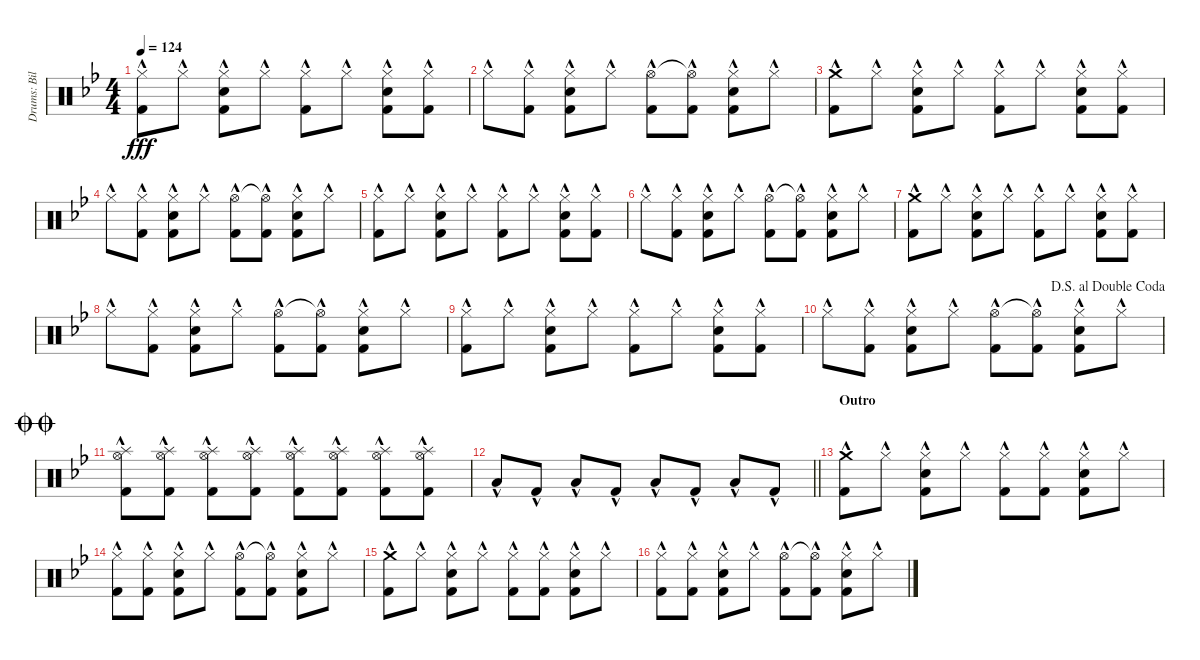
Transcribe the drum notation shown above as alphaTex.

\track ("Drums: Bill" "Drums: Bil") {instrument percussion}
\staff {score}
\articulation defaults
\ts (4 4)
\tempo 124
\clef neutral
\ks bb
("Hi-Hat (closed)"{hac} "Kick (hit) 2"{hac}).8{dy fff} "Hi-Hat (closed)"{hac}.8 ("Hi-Hat (closed)"{hac} "Snare (hit) 2"{hac} "Kick (hit) 2"{hac}).8 "Hi-Hat (closed)"{hac}.8 ("Hi-Hat (closed)"{hac} "Kick (hit) 2"{hac}).8 "Hi-Hat (closed)"{hac}.8 ("Hi-Hat (closed)"{hac} "Snare (hit) 2"{hac} "Kick (hit) 2"{hac}).8 ("Hi-Hat (closed)"{hac} "Kick (hit) 2"{hac}).8 |
"Hi-Hat (closed)"{hac}.8 ("Hi-Hat (closed)"{hac} "Kick (hit) 2"{hac}).8 ("Hi-Hat (closed)"{hac} "Snare (hit) 2"{hac} "Kick (hit) 2"{hac}).8 "Hi-Hat (closed)"{hac}.8 ("Hi-Hat (open)"{hac} "Kick (hit) 2"{hac}).8 ("Hi-Hat (open)"{t} "Kick (hit) 2"{hac}).8 ("Hi-Hat (closed)"{hac} "Snare (hit) 2"{hac} "Kick (hit) 2"{hac}).8 "Hi-Hat (closed)"{hac}.8 |
("Crash medium (hit)"{hac} "Kick (hit) 2"{hac}).8 "Hi-Hat (closed)"{hac}.8 ("Hi-Hat (closed)"{hac} "Snare (hit) 2"{hac} "Kick (hit) 2"{hac}).8 "Hi-Hat (closed)"{hac}.8 ("Hi-Hat (closed)"{hac} "Kick (hit) 2"{hac}).8 "Hi-Hat (closed)"{hac}.8 ("Hi-Hat (closed)"{hac} "Snare (hit) 2"{hac} "Kick (hit) 2"{hac}).8 ("Hi-Hat (closed)"{hac} "Kick (hit) 2"{hac}).8 |
"Hi-Hat (closed)"{hac}.8 ("Hi-Hat (closed)"{hac} "Kick (hit) 2"{hac}).8 ("Hi-Hat (closed)"{hac} "Snare (hit) 2"{hac} "Kick (hit) 2"{hac}).8 "Hi-Hat (closed)"{hac}.8 ("Hi-Hat (open)"{hac} "Kick (hit) 2"{hac}).8 ("Hi-Hat (open)"{t} "Kick (hit) 2"{hac}).8 ("Hi-Hat (closed)"{hac} "Snare (hit) 2"{hac} "Kick (hit) 2"{hac}).8 "Hi-Hat (closed)"{hac}.8 |
("Hi-Hat (closed)"{hac} "Kick (hit) 2"{hac}).8 "Hi-Hat (closed)"{hac}.8 ("Hi-Hat (closed)"{hac} "Snare (hit) 2"{hac} "Kick (hit) 2"{hac}).8 "Hi-Hat (closed)"{hac}.8 ("Hi-Hat (closed)"{hac} "Kick (hit) 2"{hac}).8 "Hi-Hat (closed)"{hac}.8 ("Hi-Hat (closed)"{hac} "Snare (hit) 2"{hac} "Kick (hit) 2"{hac}).8 ("Hi-Hat (closed)"{hac} "Kick (hit) 2"{hac}).8 |
"Hi-Hat (closed)"{hac}.8 ("Hi-Hat (closed)"{hac} "Kick (hit) 2"{hac}).8 ("Hi-Hat (closed)"{hac} "Snare (hit) 2"{hac} "Kick (hit) 2"{hac}).8 "Hi-Hat (closed)"{hac}.8 ("Hi-Hat (open)"{hac} "Kick (hit) 2"{hac}).8 ("Hi-Hat (open)"{t} "Kick (hit) 2"{hac}).8 ("Hi-Hat (closed)"{hac} "Snare (hit) 2"{hac} "Kick (hit) 2"{hac}).8 "Hi-Hat (closed)"{hac}.8 |
("Crash medium (hit)"{hac} "Kick (hit) 2"{hac}).8 "Hi-Hat (closed)"{hac}.8 ("Hi-Hat (closed)"{hac} "Snare (hit) 2"{hac} "Kick (hit) 2"{hac}).8 "Hi-Hat (closed)"{hac}.8 ("Hi-Hat (closed)"{hac} "Kick (hit) 2"{hac}).8 "Hi-Hat (closed)"{hac}.8 ("Hi-Hat (closed)"{hac} "Snare (hit) 2"{hac} "Kick (hit) 2"{hac}).8 ("Hi-Hat (closed)"{hac} "Kick (hit) 2"{hac}).8 |
"Hi-Hat (closed)"{hac}.8 ("Hi-Hat (closed)"{hac} "Kick (hit) 2"{hac}).8 ("Hi-Hat (closed)"{hac} "Snare (hit) 2"{hac} "Kick (hit) 2"{hac}).8 "Hi-Hat (closed)"{hac}.8 ("Hi-Hat (open)"{hac} "Kick (hit) 2"{hac}).8 ("Hi-Hat (open)"{t} "Kick (hit) 2"{hac}).8 ("Hi-Hat (closed)"{hac} "Snare (hit) 2"{hac} "Kick (hit) 2"{hac}).8 "Hi-Hat (closed)"{hac}.8 |
("Hi-Hat (closed)"{hac} "Kick (hit) 2"{hac}).8 "Hi-Hat (closed)"{hac}.8 ("Hi-Hat (closed)"{hac} "Snare (hit) 2"{hac} "Kick (hit) 2"{hac}).8 "Hi-Hat (closed)"{hac}.8 ("Hi-Hat (closed)"{hac} "Kick (hit) 2"{hac}).8 "Hi-Hat (closed)"{hac}.8 ("Hi-Hat (closed)"{hac} "Snare (hit) 2"{hac} "Kick (hit) 2"{hac}).8 ("Hi-Hat (closed)"{hac} "Kick (hit) 2"{hac}).8 |
\jump dalsegnoaldoublecoda "Hi-Hat (closed)"{hac}.8
("Hi-Hat (closed)"{hac} "Kick (hit) 2"{hac}).8 ("Hi-Hat (closed)"{hac} "Snare (hit) 2"{hac} "Kick (hit) 2"{hac}).8 "Hi-Hat (closed)"{hac}.8 ("Hi-Hat (open)"{hac} "Kick (hit) 2"{hac}).8 ("Hi-Hat (open)"{t} "Kick (hit) 2"{hac}).8 ("Hi-Hat (closed)"{hac} "Snare (hit) 2"{hac} "Kick (hit) 2"{hac}).8 "Hi-Hat (closed)"{hac}.8 |
\jump doublecoda
("Splash (hit)"{hac} "Hi-Hat (open)"{hac} "Kick (hit) 2"{hac}).8 ("Splash (hit)"{hac} "Hi-Hat (open)"{hac} "Kick (hit) 2"{hac}).8 ("Splash (hit)"{hac} "Hi-Hat (open)"{hac} "Kick (hit) 2"{hac}).8 ("Splash (hit)"{hac} "Hi-Hat (open)"{hac} "Kick (hit) 2"{hac}).8 ("Splash (hit)"{hac} "Hi-Hat (open)"{hac} "Kick (hit) 2"{hac}).8 ("Splash (hit)"{hac} "Hi-Hat (open)"{hac} "Kick (hit) 2"{hac}).8 ("Splash (hit)"{hac} "Hi-Hat (open)"{hac} "Kick (hit) 2"{hac}).8 ("Splash (hit)"{hac} "Hi-Hat (open)"{hac} "Kick (hit) 2"{hac}).8 |
\barLineRight lightlight "Low Tom (hit)"{hac}.8 "Kick (hit) 2"{hac}.8 "Low Tom (hit)"{hac}.8 "Kick (hit) 2"{hac}.8 "Low Tom (hit)"{hac}.8 "Kick (hit) 2"{hac}.8 "Low Tom (hit)"{hac}.8 "Kick (hit) 2"{hac}.8
|
\section ("" "Outro")
("Crash medium (hit)"{hac} "Kick (hit) 2"{hac}).8 "Hi-Hat (closed)"{hac}.8 ("Hi-Hat (closed)"{hac} "Snare (hit) 2"{hac} "Kick (hit) 2"{hac}).8 "Hi-Hat (closed)"{hac}.8 ("Hi-Hat (closed)"{hac} "Kick (hit) 2"{hac}).8 ("Hi-Hat (closed)"{hac} "Kick (hit) 2"{hac}).8 ("Hi-Hat (closed)"{hac} "Snare (hit) 2"{hac} "Kick (hit) 2"{hac}).8 "Hi-Hat (closed)"{hac}.8 |
("Hi-Hat (closed)"{hac} "Kick (hit) 2"{hac}).8 ("Hi-Hat (closed)"{hac} "Kick (hit) 2"{hac}).8 ("Hi-Hat (closed)"{hac} "Snare (hit) 2"{hac} "Kick (hit) 2"{hac}).8 "Hi-Hat (closed)"{hac}.8 ("Hi-Hat (open)"{hac} "Kick (hit) 2"{hac}).8 ("Hi-Hat (open)"{t} "Kick (hit) 2"{hac}).8 ("Hi-Hat (closed)"{hac} "Snare (hit) 2"{hac} "Kick (hit) 2"{hac}).8 "Hi-Hat (closed)"{hac}.8 |
("Crash medium (hit)"{hac} "Kick (hit) 2"{hac}).8 "Hi-Hat (closed)"{hac}.8 ("Hi-Hat (closed)"{hac} "Snare (hit) 2"{hac} "Kick (hit) 2"{hac}).8 "Hi-Hat (closed)"{hac}.8 ("Hi-Hat (closed)"{hac} "Kick (hit) 2"{hac}).8 ("Hi-Hat (closed)"{hac} "Kick (hit) 2"{hac}).8 ("Hi-Hat (closed)"{hac} "Snare (hit) 2"{hac} "Kick (hit) 2"{hac}).8 "Hi-Hat (closed)"{hac}.8 |
("Hi-Hat (closed)"{hac} "Kick (hit) 2"{hac}).8 ("Hi-Hat (closed)"{hac} "Kick (hit) 2"{hac}).8 ("Hi-Hat (closed)"{hac} "Snare (hit) 2"{hac} "Kick (hit) 2"{hac}).8 "Hi-Hat (closed)"{hac}.8 ("Hi-Hat (open)"{hac} "Kick (hit) 2"{hac}).8 ("Hi-Hat (open)"{t} "Kick (hit) 2"{hac}).8 ("Hi-Hat (closed)"{hac} "Snare (hit) 2"{hac} "Kick (hit) 2"{hac}).8 "Hi-Hat (closed)"{hac}.8
